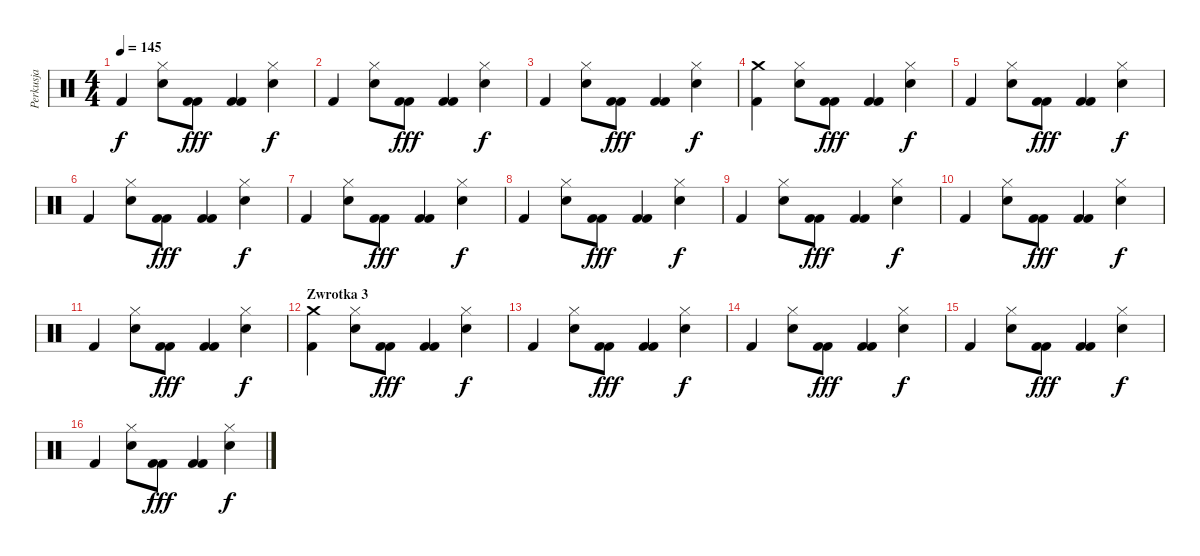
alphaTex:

\track ("Perkusja" "Perkusja") {instrument percussion}
\staff {score}
\articulation defaults
\ts (4 4)
\tempo 145
\clef neutral
\ks c "Kick (hit) 2".4{dy f}
("Hi-Hat (closed)" "Snare (hit) 2").8 ("Kick (hit) 2" "Kick (hit) 2").8{dy fff} ("Kick (hit) 2" "Kick (hit) 2").4 ("Hi-Hat (closed)" "Snare (hit) 2").4{dy f} |
"Kick (hit) 2".4 ("Hi-Hat (closed)" "Snare (hit) 2").8 ("Kick (hit) 2" "Kick (hit) 2").8{dy fff} ("Kick (hit) 2" "Kick (hit) 2").4 ("Hi-Hat (closed)" "Snare (hit) 2").4{dy f} |
"Kick (hit) 2".4 ("Hi-Hat (closed)" "Snare (hit) 2").8 ("Kick (hit) 2" "Kick (hit) 2").8{dy fff} ("Kick (hit) 2" "Kick (hit) 2").4 ("Hi-Hat (closed)" "Snare (hit) 2").4{dy f} |
("Kick (hit) 2" "Crash medium (hit)").4 ("Hi-Hat (closed)" "Snare (hit) 2").8 ("Kick (hit) 2" "Kick (hit) 2").8{dy fff} ("Kick (hit) 2" "Kick (hit) 2").4 ("Hi-Hat (closed)" "Snare (hit) 2").4{dy f} |
"Kick (hit) 2".4 ("Hi-Hat (closed)" "Snare (hit) 2").8 ("Kick (hit) 2" "Kick (hit) 2").8{dy fff} ("Kick (hit) 2" "Kick (hit) 2").4 ("Hi-Hat (closed)" "Snare (hit) 2").4{dy f} |
"Kick (hit) 2".4 ("Hi-Hat (closed)" "Snare (hit) 2").8 ("Kick (hit) 2" "Kick (hit) 2").8{dy fff} ("Kick (hit) 2" "Kick (hit) 2").4 ("Hi-Hat (closed)" "Snare (hit) 2").4{dy f} |
"Kick (hit) 2".4 ("Hi-Hat (closed)" "Snare (hit) 2").8 ("Kick (hit) 2" "Kick (hit) 2").8{dy fff} ("Kick (hit) 2" "Kick (hit) 2").4 ("Hi-Hat (closed)" "Snare (hit) 2").4{dy f} |
"Kick (hit) 2".4 ("Hi-Hat (closed)" "Snare (hit) 2").8 ("Kick (hit) 2" "Kick (hit) 2").8{dy fff} ("Kick (hit) 2" "Kick (hit) 2").4 ("Hi-Hat (closed)" "Snare (hit) 2").4{dy f} |
"Kick (hit) 2".4 ("Hi-Hat (closed)" "Snare (hit) 2").8 ("Kick (hit) 2" "Kick (hit) 2").8{dy fff} ("Kick (hit) 2" "Kick (hit) 2").4 ("Hi-Hat (closed)" "Snare (hit) 2").4{dy f} |
"Kick (hit) 2".4 ("Hi-Hat (closed)" "Snare (hit) 2").8 ("Kick (hit) 2" "Kick (hit) 2").8{dy fff} ("Kick (hit) 2" "Kick (hit) 2").4 ("Hi-Hat (closed)" "Snare (hit) 2").4{dy f} |
"Kick (hit) 2".4 ("Hi-Hat (closed)" "Snare (hit) 2").8 ("Kick (hit) 2" "Kick (hit) 2").8{dy fff} ("Kick (hit) 2" "Kick (hit) 2").4 ("Hi-Hat (closed)" "Snare (hit) 2").4{dy f} |
\section ("" "Zwrotka 3")
("Kick (hit) 2" "Crash medium (hit)").4 ("Hi-Hat (closed)" "Snare (hit) 2").8 ("Kick (hit) 2" "Kick (hit) 2").8{dy fff} ("Kick (hit) 2" "Kick (hit) 2").4 ("Hi-Hat (closed)" "Snare (hit) 2").4{dy f} |
"Kick (hit) 2".4 ("Hi-Hat (closed)" "Snare (hit) 2").8 ("Kick (hit) 2" "Kick (hit) 2").8{dy fff} ("Kick (hit) 2" "Kick (hit) 2").4 ("Hi-Hat (closed)" "Snare (hit) 2").4{dy f} |
"Kick (hit) 2".4 ("Hi-Hat (closed)" "Snare (hit) 2").8 ("Kick (hit) 2" "Kick (hit) 2").8{dy fff} ("Kick (hit) 2" "Kick (hit) 2").4 ("Hi-Hat (closed)" "Snare (hit) 2").4{dy f} |
"Kick (hit) 2".4 ("Hi-Hat (closed)" "Snare (hit) 2").8 ("Kick (hit) 2" "Kick (hit) 2").8{dy fff} ("Kick (hit) 2" "Kick (hit) 2").4 ("Hi-Hat (closed)" "Snare (hit) 2").4{dy f} |
"Kick (hit) 2".4 ("Hi-Hat (closed)" "Snare (hit) 2").8 ("Kick (hit) 2" "Kick (hit) 2").8{dy fff} ("Kick (hit) 2" "Kick (hit) 2").4 ("Hi-Hat (closed)" "Snare (hit) 2").4{dy f}
